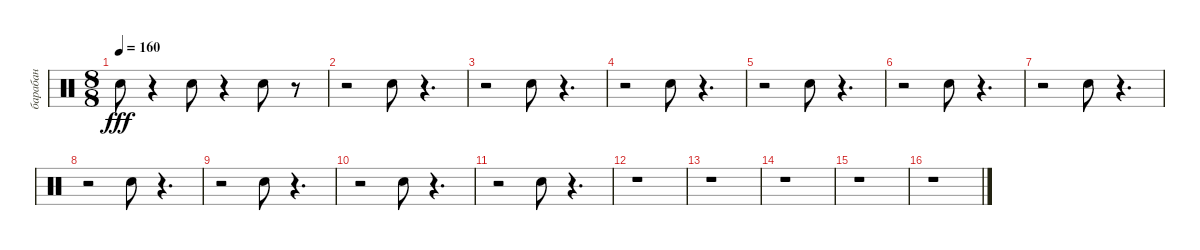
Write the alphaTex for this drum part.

\track ("барабан" "барабан") {instrument percussion}
\staff {score}
\articulation defaults
\ts (8 8)
\tempo 160
\clef neutral
\ks c "Snare (hit) 2".8{dy fff}
r.4 "Snare (hit) 2".8 r.4 "Snare (hit) 2".8 r.8 |
r.2 "Snare (hit) 2".8 r.4{d} |
r.2 "Snare (hit) 2".8 r.4{d} |
r.2 "Snare (hit) 2".8 r.4{d} |
r.2 "Snare (hit) 2".8 r.4{d} |
r.2 "Snare (hit) 2".8 r.4{d} |
r.2 "Snare (hit) 2".8 r.4{d} |
r.2 "Snare (hit) 2".8 r.4{d} |
r.2 "Snare (hit) 2".8 r.4{d} |
r.2 "Snare (hit) 2".8 r.4{d} |
r.2 "Snare (hit) 2".8 r.4{d} |
r.1 |
r.1 |
r.1 |
r.1 |
r.1
